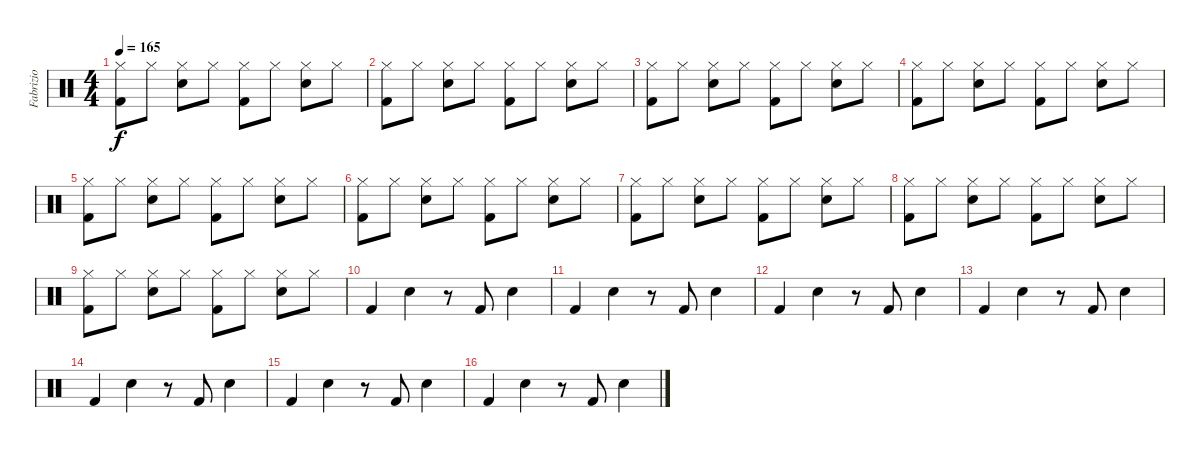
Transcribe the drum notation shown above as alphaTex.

\track ("Fabrizio" "Fabrizio") {instrument percussion}
\staff {score}
\articulation defaults
\ts (4 4)
\tempo 165
\clef neutral
\ks c
("Kick (hit) 2" "Hi-Hat (closed)").8{dy f} "Hi-Hat (closed)".8 ("Snare (hit) 2" "Hi-Hat (closed)").8 "Hi-Hat (closed)".8 ("Kick (hit) 2" "Hi-Hat (closed)").8 "Hi-Hat (closed)".8 ("Snare (hit) 2" "Hi-Hat (closed)").8 "Hi-Hat (closed)".8 |
("Kick (hit) 2" "Hi-Hat (closed)").8 "Hi-Hat (closed)".8 ("Snare (hit) 2" "Hi-Hat (closed)").8 "Hi-Hat (closed)".8 ("Kick (hit) 2" "Hi-Hat (closed)").8 "Hi-Hat (closed)".8 ("Snare (hit) 2" "Hi-Hat (closed)").8 "Hi-Hat (closed)".8 |
("Hi-Hat (closed)" "Kick (hit) 2").8 "Hi-Hat (closed)".8 ("Hi-Hat (closed)" "Snare (hit) 2").8 "Hi-Hat (closed)".8 ("Hi-Hat (closed)" "Kick (hit) 2").8 "Hi-Hat (closed)".8 ("Hi-Hat (closed)" "Snare (hit) 2").8 "Hi-Hat (closed)".8 |
("Hi-Hat (closed)" "Kick (hit) 2").8 "Hi-Hat (closed)".8 ("Hi-Hat (closed)" "Snare (hit) 2").8 "Hi-Hat (closed)".8 ("Hi-Hat (closed)" "Kick (hit) 2").8 "Hi-Hat (closed)".8 ("Hi-Hat (closed)" "Snare (hit) 2").8 "Hi-Hat (closed)".8 |
("Hi-Hat (closed)" "Kick (hit) 2").8 "Hi-Hat (closed)".8 ("Hi-Hat (closed)" "Snare (hit) 2").8 "Hi-Hat (closed)".8 ("Hi-Hat (closed)" "Kick (hit) 2").8 "Hi-Hat (closed)".8 ("Hi-Hat (closed)" "Snare (hit) 2").8 "Hi-Hat (closed)".8 |
("Kick (hit) 2" "Hi-Hat (closed)").8 "Hi-Hat (closed)".8 ("Snare (hit) 2" "Hi-Hat (closed)").8 "Hi-Hat (closed)".8 ("Kick (hit) 2" "Hi-Hat (closed)").8 "Hi-Hat (closed)".8 ("Snare (hit) 2" "Hi-Hat (closed)").8 "Hi-Hat (closed)".8 |
("Kick (hit) 2" "Hi-Hat (closed)").8 "Hi-Hat (closed)".8 ("Snare (hit) 2" "Hi-Hat (closed)").8 "Hi-Hat (closed)".8 ("Kick (hit) 2" "Hi-Hat (closed)").8 "Hi-Hat (closed)".8 ("Snare (hit) 2" "Hi-Hat (closed)").8 "Hi-Hat (closed)".8 |
("Hi-Hat (closed)" "Kick (hit) 2").8 "Hi-Hat (closed)".8 ("Hi-Hat (closed)" "Snare (hit) 2").8 "Hi-Hat (closed)".8 ("Hi-Hat (closed)" "Kick (hit) 2").8 "Hi-Hat (closed)".8 ("Hi-Hat (closed)" "Snare (hit) 2").8 "Hi-Hat (closed)".8 |
("Kick (hit) 2" "Hi-Hat (closed)").8 "Hi-Hat (closed)".8 ("Snare (hit) 2" "Hi-Hat (closed)").8 "Hi-Hat (closed)".8 ("Kick (hit) 2" "Hi-Hat (closed)").8 "Hi-Hat (closed)".8 ("Snare (hit) 2" "Hi-Hat (closed)").8 "Hi-Hat (closed)".8 |
"Kick (hit) 2".4 "Snare (hit) 2".4 r.8 "Kick (hit) 2".8 "Snare (hit) 2".4 |
"Kick (hit) 2".4 "Snare (hit) 2".4 r.8 "Kick (hit) 2".8 "Snare (hit) 2".4 |
"Kick (hit) 2".4 "Snare (hit) 2".4 r.8 "Kick (hit) 2".8 "Snare (hit) 2".4 |
"Kick (hit) 2".4 "Snare (hit) 2".4 r.8 "Kick (hit) 2".8 "Snare (hit) 2".4 |
"Kick (hit) 2".4 "Snare (hit) 2".4 r.8 "Kick (hit) 2".8 "Snare (hit) 2".4 |
"Kick (hit) 2".4 "Snare (hit) 2".4 r.8 "Kick (hit) 2".8 "Snare (hit) 2".4 |
"Kick (hit) 2".4 "Snare (hit) 2".4 r.8 "Kick (hit) 2".8 "Snare (hit) 2".4
